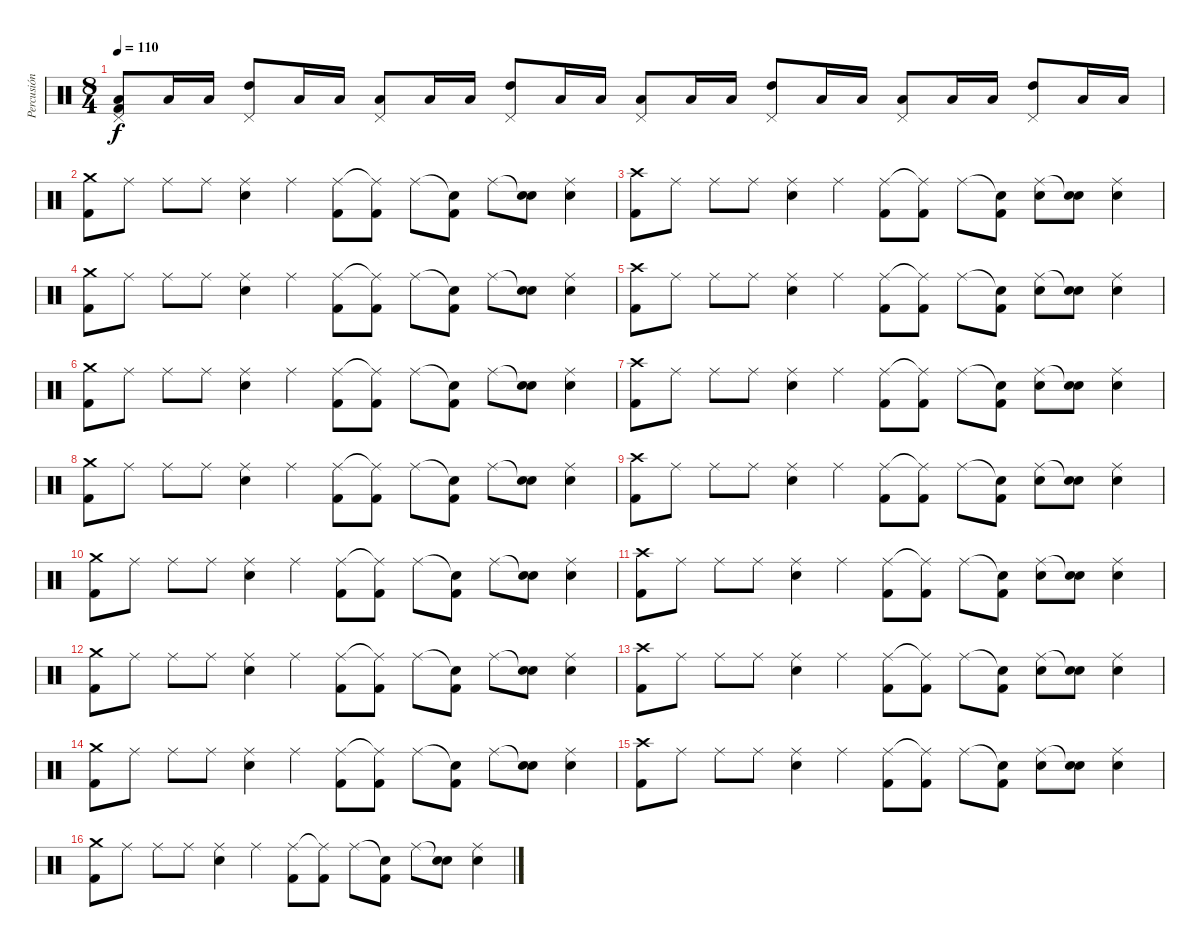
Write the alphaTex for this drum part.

\track ("Percusión" "Percusión") {instrument percussion}
\staff {score}
\articulation defaults
\ts (8 4)
\tempo 110
\clef neutral
\ks c
("Pedal Hi-Hat (hit)" "Low Floor Tom (hit)" "Kick (hit) 2").8{dy f} "Low Floor Tom (hit)".16 "Low Floor Tom (hit)".16 ("Pedal Hi-Hat (hit)" "High Tom (hit)").8 "Low Floor Tom (hit)".16 "Low Floor Tom (hit)".16 ("Pedal Hi-Hat (hit)" "Low Floor Tom (hit)").8 "Low Floor Tom (hit)".16 "Low Floor Tom (hit)".16 ("Pedal Hi-Hat (hit)" "High Tom (hit)").8 "Low Floor Tom (hit)".16 "Low Floor Tom (hit)".16 ("Pedal Hi-Hat (hit)" "Low Floor Tom (hit)").8 "Low Floor Tom (hit)".16 "Low Floor Tom (hit)".16 ("Pedal Hi-Hat (hit)" "High Tom (hit)").8 "Low Floor Tom (hit)".16 "Low Floor Tom (hit)".16 ("Pedal Hi-Hat (hit)" "Low Floor Tom (hit)").8 "Low Floor Tom (hit)".16 "Low Floor Tom (hit)".16 ("Pedal Hi-Hat (hit)" "High Tom (hit)").8 "Low Floor Tom (hit)".16 "Low Floor Tom (hit)".16 |
("Crash medium (hit)" "Kick (hit) 2").8 "Ride (middle)".8 "Ride (middle)".8 "Ride (middle)".8 ("Ride (middle)" "Electric Snare (hit)").4 "Ride (middle)".4 ("Ride (middle)" "Kick (hit) 2").8 ("Ride (middle)"{t} "Kick (hit) 2").8 "Ride (middle)".8 ("Snare (hit)"{t} "Kick (hit) 2").8 "Ride (middle)".8 ("Snare (hit)"{t} "Electric Snare (hit)").8 ("Ride (middle)" "Electric Snare (hit)").4 |
("Crash high (hit)" "Kick (hit) 2").8 "Ride (middle)".8 "Ride (middle)".8 "Ride (middle)".8 ("Ride (middle)" "Electric Snare (hit)").4 "Ride (middle)".4 ("Ride (middle)" "Kick (hit) 2").8 ("Ride (middle)"{t} "Kick (hit) 2").8 "Ride (middle)".8 ("Snare (hit)"{t} "Kick (hit) 2").8 ("Ride (middle)" "Electric Snare (hit)").8 ("Snare (hit)"{t} "Electric Snare (hit)").8 ("Ride (middle)" "Electric Snare (hit)").4 |
("Crash medium (hit)" "Kick (hit) 2").8 "Ride (middle)".8 "Ride (middle)".8 "Ride (middle)".8 ("Ride (middle)" "Electric Snare (hit)").4 "Ride (middle)".4 ("Ride (middle)" "Kick (hit) 2").8 ("Ride (middle)"{t} "Kick (hit) 2").8 "Ride (middle)".8 ("Snare (hit)"{t} "Kick (hit) 2").8 "Ride (middle)".8 ("Snare (hit)"{t} "Electric Snare (hit)").8 ("Ride (middle)" "Electric Snare (hit)").4 |
("Crash high (hit)" "Kick (hit) 2").8 "Ride (middle)".8 "Ride (middle)".8 "Ride (middle)".8 ("Ride (middle)" "Electric Snare (hit)").4 "Ride (middle)".4 ("Ride (middle)" "Kick (hit) 2").8 ("Ride (middle)"{t} "Kick (hit) 2").8 "Ride (middle)".8 ("Snare (hit)"{t} "Kick (hit) 2").8 ("Ride (middle)" "Electric Snare (hit)").8 ("Snare (hit)"{t} "Electric Snare (hit)").8 ("Ride (middle)" "Electric Snare (hit)").4 |
("Crash medium (hit)" "Kick (hit) 2").8 "Ride (middle)".8 "Ride (middle)".8 "Ride (middle)".8 ("Ride (middle)" "Electric Snare (hit)").4 "Ride (middle)".4 ("Ride (middle)" "Kick (hit) 2").8 ("Ride (middle)"{t} "Kick (hit) 2").8 "Ride (middle)".8 ("Snare (hit)"{t} "Kick (hit) 2").8 "Ride (middle)".8 ("Snare (hit)"{t} "Electric Snare (hit)").8 ("Ride (middle)" "Electric Snare (hit)").4 |
("Crash high (hit)" "Kick (hit) 2").8 "Ride (middle)".8 "Ride (middle)".8 "Ride (middle)".8 ("Ride (middle)" "Electric Snare (hit)").4 "Ride (middle)".4 ("Ride (middle)" "Kick (hit) 2").8 ("Ride (middle)"{t} "Kick (hit) 2").8 "Ride (middle)".8 ("Snare (hit)"{t} "Kick (hit) 2").8 ("Ride (middle)" "Electric Snare (hit)").8 ("Snare (hit)"{t} "Electric Snare (hit)").8 ("Ride (middle)" "Electric Snare (hit)").4 |
("Crash medium (hit)" "Kick (hit) 2").8 "Ride (middle)".8 "Ride (middle)".8 "Ride (middle)".8 ("Ride (middle)" "Electric Snare (hit)").4 "Ride (middle)".4 ("Ride (middle)" "Kick (hit) 2").8 ("Ride (middle)"{t} "Kick (hit) 2").8 "Ride (middle)".8 ("Snare (hit)"{t} "Kick (hit) 2").8 "Ride (middle)".8 ("Snare (hit)"{t} "Electric Snare (hit)").8 ("Ride (middle)" "Electric Snare (hit)").4 |
("Crash high (hit)" "Kick (hit) 2").8 "Ride (middle)".8 "Ride (middle)".8 "Ride (middle)".8 ("Ride (middle)" "Electric Snare (hit)").4 "Ride (middle)".4 ("Ride (middle)" "Kick (hit) 2").8 ("Ride (middle)"{t} "Kick (hit) 2").8 "Ride (middle)".8 ("Snare (hit)"{t} "Kick (hit) 2").8 ("Ride (middle)" "Electric Snare (hit)").8 ("Snare (hit)"{t} "Electric Snare (hit)").8 ("Ride (middle)" "Electric Snare (hit)").4 |
("Crash medium (hit)" "Kick (hit) 2").8 "Ride (middle)".8 "Ride (middle)".8 "Ride (middle)".8 ("Ride (middle)" "Electric Snare (hit)").4 "Ride (middle)".4 ("Ride (middle)" "Kick (hit) 2").8 ("Ride (middle)"{t} "Kick (hit) 2").8 "Ride (middle)".8 ("Snare (hit)"{t} "Kick (hit) 2").8 "Ride (middle)".8 ("Snare (hit)"{t} "Electric Snare (hit)").8 ("Ride (middle)" "Electric Snare (hit)").4 |
("Crash high (hit)" "Kick (hit) 2").8 "Ride (middle)".8 "Ride (middle)".8 "Ride (middle)".8 ("Ride (middle)" "Electric Snare (hit)").4 "Ride (middle)".4 ("Ride (middle)" "Kick (hit) 2").8 ("Ride (middle)"{t} "Kick (hit) 2").8 "Ride (middle)".8 ("Snare (hit)"{t} "Kick (hit) 2").8 ("Ride (middle)" "Electric Snare (hit)").8 ("Snare (hit)"{t} "Electric Snare (hit)").8 ("Ride (middle)" "Electric Snare (hit)").4 |
("Crash medium (hit)" "Kick (hit) 2").8 "Ride (middle)".8 "Ride (middle)".8 "Ride (middle)".8 ("Ride (middle)" "Electric Snare (hit)").4 "Ride (middle)".4 ("Ride (middle)" "Kick (hit) 2").8 ("Ride (middle)"{t} "Kick (hit) 2").8 "Ride (middle)".8 ("Snare (hit)"{t} "Kick (hit) 2").8 "Ride (middle)".8 ("Snare (hit)"{t} "Electric Snare (hit)").8 ("Ride (middle)" "Electric Snare (hit)").4 |
("Crash high (hit)" "Kick (hit) 2").8 "Ride (middle)".8 "Ride (middle)".8 "Ride (middle)".8 ("Ride (middle)" "Electric Snare (hit)").4 "Ride (middle)".4 ("Ride (middle)" "Kick (hit) 2").8 ("Ride (middle)"{t} "Kick (hit) 2").8 "Ride (middle)".8 ("Snare (hit)"{t} "Kick (hit) 2").8 ("Ride (middle)" "Electric Snare (hit)").8 ("Snare (hit)"{t} "Electric Snare (hit)").8 ("Ride (middle)" "Electric Snare (hit)").4 |
("Crash medium (hit)" "Kick (hit) 2").8 "Ride (middle)".8 "Ride (middle)".8 "Ride (middle)".8 ("Ride (middle)" "Electric Snare (hit)").4 "Ride (middle)".4 ("Ride (middle)" "Kick (hit) 2").8 ("Ride (middle)"{t} "Kick (hit) 2").8 "Ride (middle)".8 ("Snare (hit)"{t} "Kick (hit) 2").8 "Ride (middle)".8 ("Snare (hit)"{t} "Electric Snare (hit)").8 ("Ride (middle)" "Electric Snare (hit)").4 |
("Crash high (hit)" "Kick (hit) 2").8 "Ride (middle)".8 "Ride (middle)".8 "Ride (middle)".8 ("Ride (middle)" "Electric Snare (hit)").4 "Ride (middle)".4 ("Ride (middle)" "Kick (hit) 2").8 ("Ride (middle)"{t} "Kick (hit) 2").8 "Ride (middle)".8 ("Snare (hit)"{t} "Kick (hit) 2").8 ("Ride (middle)" "Electric Snare (hit)").8 ("Snare (hit)"{t} "Electric Snare (hit)").8 ("Ride (middle)" "Electric Snare (hit)").4 |
("Crash medium (hit)" "Kick (hit) 2").8 "Ride (middle)".8 "Ride (middle)".8 "Ride (middle)".8 ("Ride (middle)" "Electric Snare (hit)").4 "Ride (middle)".4 ("Ride (middle)" "Kick (hit) 2").8 ("Ride (middle)"{t} "Kick (hit) 2").8 "Ride (middle)".8 ("Snare (hit)"{t} "Kick (hit) 2").8 "Ride (middle)".8 ("Snare (hit)"{t} "Electric Snare (hit)").8 ("Ride (middle)" "Electric Snare (hit)").4
